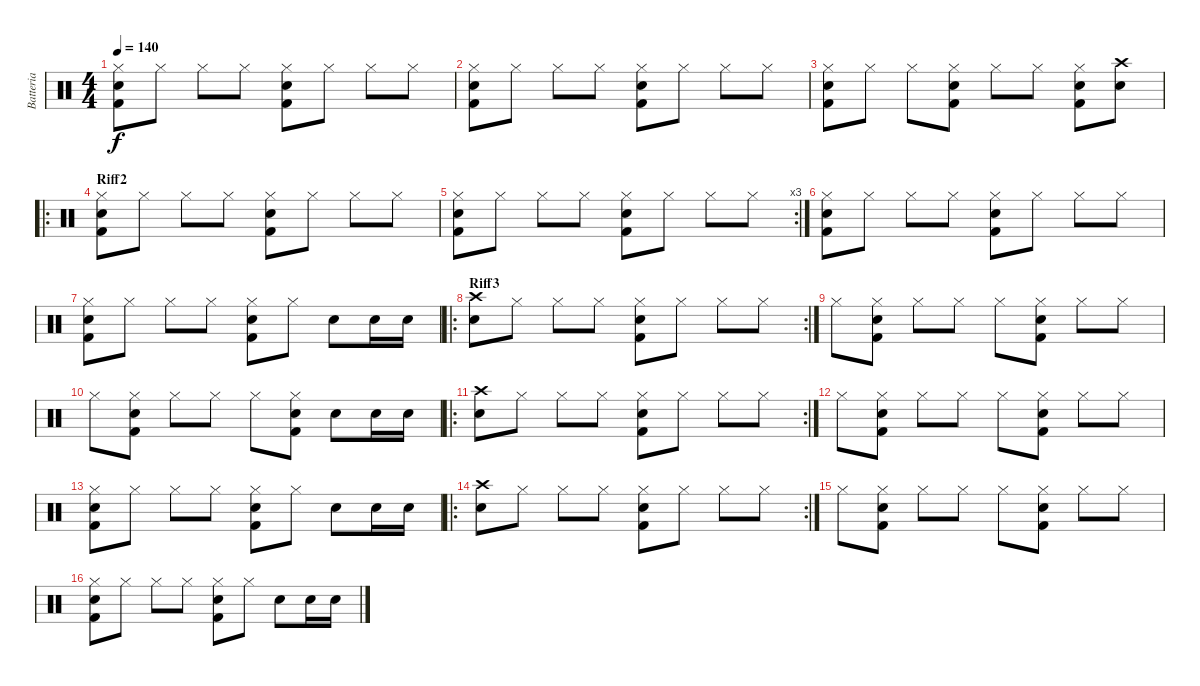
\track ("Batteria" "Batteria") {instrument percussion}
\staff {score}
\articulation defaults
\ts (4 4)
\tempo 140
\clef neutral
\ks c
("Hi-Hat (closed)" "Snare (hit) 2" "Kick (hit) 2").8{dy f} "Hi-Hat (closed)".8 "Hi-Hat (closed)".8 "Hi-Hat (closed)".8 ("Kick (hit) 2" "Snare (hit) 2" "Hi-Hat (closed)").8 "Hi-Hat (closed)".8 "Hi-Hat (closed)".8 "Hi-Hat (closed)".8 |
("Hi-Hat (closed)" "Snare (hit) 2" "Kick (hit) 2").8 "Hi-Hat (closed)".8 "Hi-Hat (closed)".8 "Hi-Hat (closed)".8 ("Kick (hit) 2" "Snare (hit) 2" "Hi-Hat (closed)").8 "Hi-Hat (closed)".8 "Hi-Hat (closed)".8 "Hi-Hat (closed)".8 |
("Hi-Hat (closed)" "Snare (hit) 2" "Kick (hit) 2").8 "Hi-Hat (closed)".8 "Hi-Hat (closed)".8 ("Hi-Hat (closed)" "Snare (hit) 2" "Kick (hit) 2").8 "Hi-Hat (closed)".8 "Hi-Hat (closed)".8 ("Hi-Hat (closed)" "Snare (hit) 2" "Kick (hit) 2").8 ("Crash high (hit)" "Snare (hit) 2").8 |
\ro
\section ("" "Riff2")
("Hi-Hat (closed)" "Snare (hit) 2" "Kick (hit) 2").8 "Hi-Hat (closed)".8 "Hi-Hat (closed)".8 "Hi-Hat (closed)".8 ("Kick (hit) 2" "Snare (hit) 2" "Hi-Hat (closed)").8 "Hi-Hat (closed)".8 "Hi-Hat (closed)".8 "Hi-Hat (closed)".8 |
\rc 3
("Hi-Hat (closed)" "Snare (hit) 2" "Kick (hit) 2").8 "Hi-Hat (closed)".8 "Hi-Hat (closed)".8 "Hi-Hat (closed)".8 ("Kick (hit) 2" "Snare (hit) 2" "Hi-Hat (closed)").8 "Hi-Hat (closed)".8 "Hi-Hat (closed)".8 "Hi-Hat (closed)".8 |
("Hi-Hat (closed)" "Snare (hit) 2" "Kick (hit) 2").8 "Hi-Hat (closed)".8 "Hi-Hat (closed)".8 "Hi-Hat (closed)".8 ("Kick (hit) 2" "Snare (hit) 2" "Hi-Hat (closed)").8 "Hi-Hat (closed)".8 "Hi-Hat (closed)".8 "Hi-Hat (closed)".8 |
("Hi-Hat (closed)" "Snare (hit) 2" "Kick (hit) 2").8 "Hi-Hat (closed)".8 "Hi-Hat (closed)".8 "Hi-Hat (closed)".8 ("Kick (hit) 2" "Snare (hit) 2" "Hi-Hat (closed)").8 "Hi-Hat (closed)".8 "Snare (hit) 2".8 "Snare (hit) 2".16 "Snare (hit) 2".16 |
\ro
\rc 2
\section ("" "Riff3")
("Crash high (hit)" "Snare (hit) 2").8 "Hi-Hat (closed)".8 "Hi-Hat (closed)".8 "Hi-Hat (closed)".8 ("Kick (hit) 2" "Hi-Hat (closed)" "Snare (hit) 2").8 "Hi-Hat (closed)".8 "Hi-Hat (closed)".8 "Hi-Hat (closed)".8 |
"Hi-Hat (closed)".8 ("Kick (hit) 2" "Hi-Hat (closed)" "Snare (hit) 2").8 "Hi-Hat (closed)".8 "Hi-Hat (closed)".8 "Hi-Hat (closed)".8 ("Kick (hit) 2" "Hi-Hat (closed)" "Snare (hit) 2").8 "Hi-Hat (closed)".8 "Hi-Hat (closed)".8 |
"Hi-Hat (closed)".8 ("Kick (hit) 2" "Hi-Hat (closed)" "Snare (hit) 2").8 "Hi-Hat (closed)".8 "Hi-Hat (closed)".8 "Hi-Hat (closed)".8 ("Kick (hit) 2" "Hi-Hat (closed)" "Snare (hit) 2").8 "Snare (hit) 2".8 "Snare (hit) 2".16 "Snare (hit) 2".16 |
\ro
\rc 2
("Crash high (hit)" "Snare (hit) 2").8 "Hi-Hat (closed)".8 "Hi-Hat (closed)".8 "Hi-Hat (closed)".8 ("Kick (hit) 2" "Hi-Hat (closed)" "Snare (hit) 2").8 "Hi-Hat (closed)".8 "Hi-Hat (closed)".8 "Hi-Hat (closed)".8 |
"Hi-Hat (closed)".8 ("Kick (hit) 2" "Hi-Hat (closed)" "Snare (hit) 2").8 "Hi-Hat (closed)".8 "Hi-Hat (closed)".8 "Hi-Hat (closed)".8 ("Kick (hit) 2" "Hi-Hat (closed)" "Snare (hit) 2").8 "Hi-Hat (closed)".8 "Hi-Hat (closed)".8 |
("Hi-Hat (closed)" "Snare (hit) 2" "Kick (hit) 2").8 "Hi-Hat (closed)".8 "Hi-Hat (closed)".8 "Hi-Hat (closed)".8 ("Kick (hit) 2" "Snare (hit) 2" "Hi-Hat (closed)").8 "Hi-Hat (closed)".8 "Snare (hit) 2".8 "Snare (hit) 2".16 "Snare (hit) 2".16 |
\ro
\rc 2
("Crash high (hit)" "Snare (hit) 2").8 "Hi-Hat (closed)".8 "Hi-Hat (closed)".8 "Hi-Hat (closed)".8 ("Kick (hit) 2" "Hi-Hat (closed)" "Snare (hit) 2").8 "Hi-Hat (closed)".8 "Hi-Hat (closed)".8 "Hi-Hat (closed)".8 |
"Hi-Hat (closed)".8 ("Kick (hit) 2" "Hi-Hat (closed)" "Snare (hit) 2").8 "Hi-Hat (closed)".8 "Hi-Hat (closed)".8 "Hi-Hat (closed)".8 ("Kick (hit) 2" "Hi-Hat (closed)" "Snare (hit) 2").8 "Hi-Hat (closed)".8 "Hi-Hat (closed)".8 |
("Hi-Hat (closed)" "Snare (hit) 2" "Kick (hit) 2").8 "Hi-Hat (closed)".8 "Hi-Hat (closed)".8 "Hi-Hat (closed)".8 ("Kick (hit) 2" "Snare (hit) 2" "Hi-Hat (closed)").8 "Hi-Hat (closed)".8 "Snare (hit) 2".8 "Snare (hit) 2".16 "Snare (hit) 2".16
